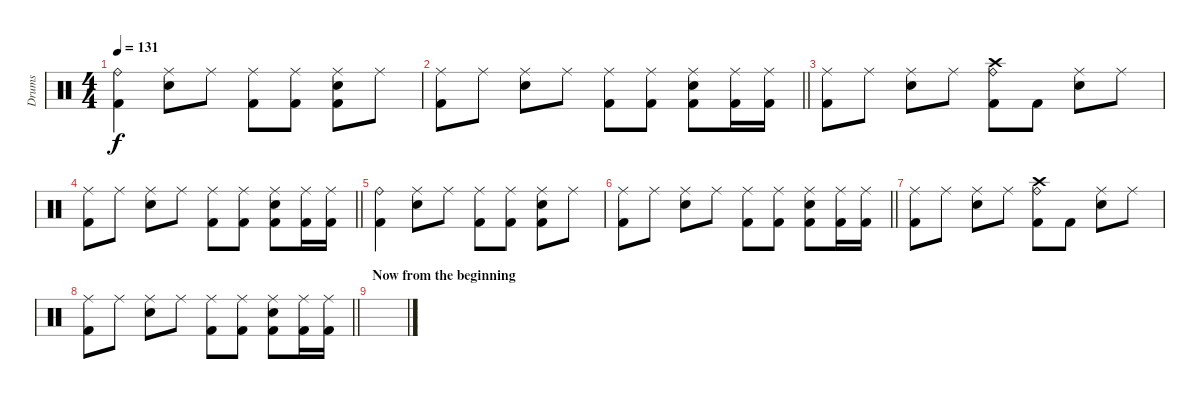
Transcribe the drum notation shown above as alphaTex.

\track ("Drums" "Drums") {instrument percussion}
\staff {score}
\articulation defaults
\ts (4 4)
\tempo 131
\clef neutral
\ks c
("Ride (bell)" "Kick (hit) 2").4{dy f} ("Ride (middle)" "Snare (hit) 2").8 "Ride (middle)".8 ("Ride (middle)" "Kick (hit) 2").8 ("Ride (middle)" "Kick (hit) 2").8 ("Ride (middle)" "Snare (hit) 2" "Kick (hit) 2").8 "Ride (middle)".8 |
\barLineRight lightlight
("Ride (middle)" "Kick (hit) 2").8 "Ride (middle)".8 ("Ride (middle)" "Snare (hit) 2").8 "Ride (middle)".8 ("Ride (middle)" "Kick (hit) 2").8 ("Ride (middle)" "Kick (hit) 2").8 ("Ride (middle)" "Snare (hit) 2" "Kick (hit) 2").8 ("Ride (middle)" "Kick (hit) 2").16 ("Ride (middle)" "Kick (hit) 2").16 |
("Ride (middle)" "Kick (hit) 2").8 "Ride (middle)".8 ("Ride (middle)" "Snare (hit) 2").8 "Ride (middle)".8 ("Crash high (hit)" "Ride (bell)" "Kick (hit) 2").8 "Kick (hit) 2".8 ("Ride (middle)" "Snare (hit) 2").8 "Ride (middle)".8 |
\barLineRight lightlight
("Ride (middle)" "Kick (hit) 2").8 "Ride (middle)".8 ("Ride (middle)" "Snare (hit) 2").8 "Ride (middle)".8 ("Ride (middle)" "Kick (hit) 2").8 ("Ride (middle)" "Kick (hit) 2").8 ("Ride (middle)" "Snare (hit) 2" "Kick (hit) 2").8 ("Ride (middle)" "Kick (hit) 2").16 ("Ride (middle)" "Kick (hit) 2").16 |
("Ride (bell)" "Kick (hit) 2").4 ("Ride (middle)" "Snare (hit) 2").8 "Ride (middle)".8 ("Ride (middle)" "Kick (hit) 2").8 ("Ride (middle)" "Kick (hit) 2").8 ("Ride (middle)" "Snare (hit) 2" "Kick (hit) 2").8 "Ride (middle)".8 |
\barLineRight lightlight
("Ride (middle)" "Kick (hit) 2").8 "Ride (middle)".8 ("Ride (middle)" "Snare (hit) 2").8 "Ride (middle)".8 ("Ride (middle)" "Kick (hit) 2").8 ("Ride (middle)" "Kick (hit) 2").8 ("Ride (middle)" "Snare (hit) 2" "Kick (hit) 2").8 ("Ride (middle)" "Kick (hit) 2").16 ("Ride (middle)" "Kick (hit) 2").16 |
("Ride (middle)" "Kick (hit) 2").8 "Ride (middle)".8 ("Ride (middle)" "Snare (hit) 2").8 "Ride (middle)".8 ("Crash high (hit)" "Ride (bell)" "Kick (hit) 2").8 "Kick (hit) 2".8 ("Ride (middle)" "Snare (hit) 2").8 "Ride (middle)".8 |
\barLineRight lightlight
("Ride (middle)" "Kick (hit) 2").8 "Ride (middle)".8 ("Ride (middle)" "Snare (hit) 2").8 "Ride (middle)".8 ("Ride (middle)" "Kick (hit) 2").8 ("Ride (middle)" "Kick (hit) 2").8 ("Ride (middle)" "Snare (hit) 2" "Kick (hit) 2").8 ("Ride (middle)" "Kick (hit) 2").16 ("Ride (middle)" "Kick (hit) 2").16 |
\section ("" "Now from the beginning")
